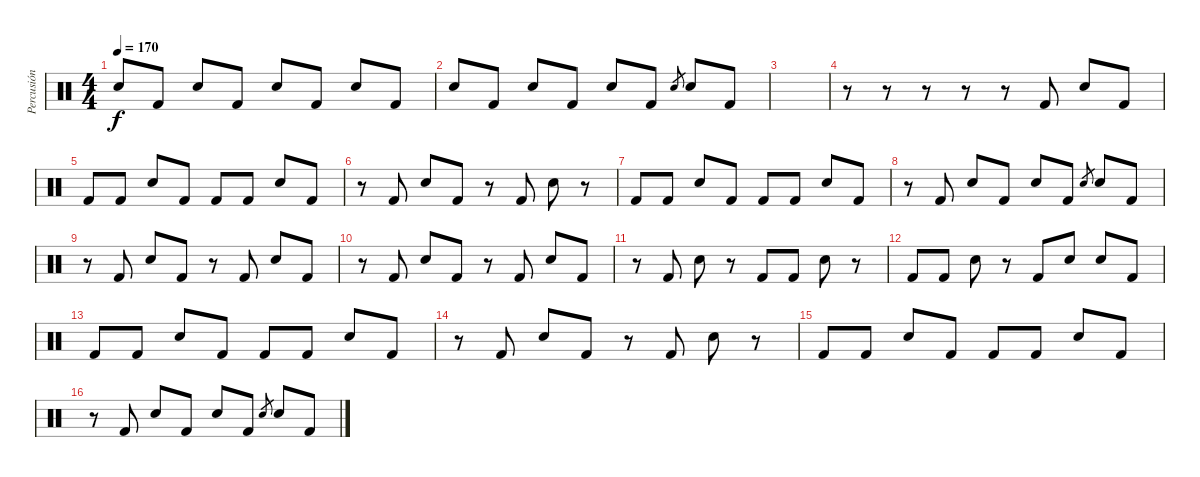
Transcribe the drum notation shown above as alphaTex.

\track ("Percusión" "Percusión") {instrument percussion}
\staff {score}
\articulation defaults
\ts (4 4)
\tempo 170
\clef neutral
\ks c "Electric Snare (hit)".8{dy f} "Kick (hit) 2".8 "Electric Snare (hit)".8 "Kick (hit) 2".8 "Electric Snare (hit)".8 "Kick (hit) 2".8 "Electric Snare (hit)".8 "Kick (hit) 2".8
|
"Electric Snare (hit)".8 "Kick (hit) 2".8 "Electric Snare (hit)".8 "Kick (hit) 2".8 "Electric Snare (hit)".8 "Kick (hit) 2".8 "Electric Snare (hit)".8{gr} "Electric Snare (hit)".8 "Kick (hit) 2".8 |
|
r.8 r.8 r.8 r.8 r.8 "Kick (hit) 2".8 "Electric Snare (hit)".8 "Kick (hit) 2".8 |
"Kick (hit) 2".8 "Kick (hit) 2".8 "Electric Snare (hit)".8 "Kick (hit) 2".8 "Kick (hit) 2".8 "Kick (hit) 2".8 "Electric Snare (hit)".8 "Kick (hit) 2".8 |
r.8 "Kick (hit) 2".8 "Electric Snare (hit)".8 "Kick (hit) 2".8 r.8 "Kick (hit) 2".8 "Electric Snare (hit)".8 r.8 |
"Kick (hit) 2".8 "Kick (hit) 2".8 "Electric Snare (hit)".8 "Kick (hit) 2".8 "Kick (hit) 2".8 "Kick (hit) 2".8 "Electric Snare (hit)".8 "Kick (hit) 2".8 |
r.8 "Kick (hit) 2".8 "Electric Snare (hit)".8 "Kick (hit) 2".8 "Electric Snare (hit)".8 "Kick (hit) 2".8 "Electric Snare (hit)".8{gr} "Electric Snare (hit)".8 "Kick (hit) 2".8 |
r.8 "Kick (hit) 2".8 "Electric Snare (hit)".8 "Kick (hit) 2".8 r.8 "Kick (hit) 2".8 "Electric Snare (hit)".8 "Kick (hit) 2".8 |
r.8 "Kick (hit) 2".8 "Electric Snare (hit)".8 "Kick (hit) 2".8 r.8 "Kick (hit) 2".8 "Electric Snare (hit)".8 "Kick (hit) 2".8 |
r.8 "Kick (hit) 2".8 "Electric Snare (hit)".8 r.8 "Kick (hit) 2".8 "Kick (hit) 2".8 "Electric Snare (hit)".8 r.8 |
"Kick (hit) 2".8 "Kick (hit) 2".8 "Electric Snare (hit)".8 r.8 "Kick (hit) 2".8 "Electric Snare (hit)".8 "Electric Snare (hit)".8 "Kick (hit) 2".8 |
"Kick (hit) 2".8 "Kick (hit) 2".8 "Electric Snare (hit)".8 "Kick (hit) 2".8 "Kick (hit) 2".8 "Kick (hit) 2".8 "Electric Snare (hit)".8 "Kick (hit) 2".8 |
r.8 "Kick (hit) 2".8 "Electric Snare (hit)".8 "Kick (hit) 2".8 r.8 "Kick (hit) 2".8 "Electric Snare (hit)".8 r.8 |
"Kick (hit) 2".8 "Kick (hit) 2".8 "Electric Snare (hit)".8 "Kick (hit) 2".8 "Kick (hit) 2".8 "Kick (hit) 2".8 "Electric Snare (hit)".8 "Kick (hit) 2".8 |
r.8 "Kick (hit) 2".8 "Electric Snare (hit)".8 "Kick (hit) 2".8 "Electric Snare (hit)".8 "Kick (hit) 2".8 "Electric Snare (hit)".8{gr} "Electric Snare (hit)".8 "Kick (hit) 2".8
